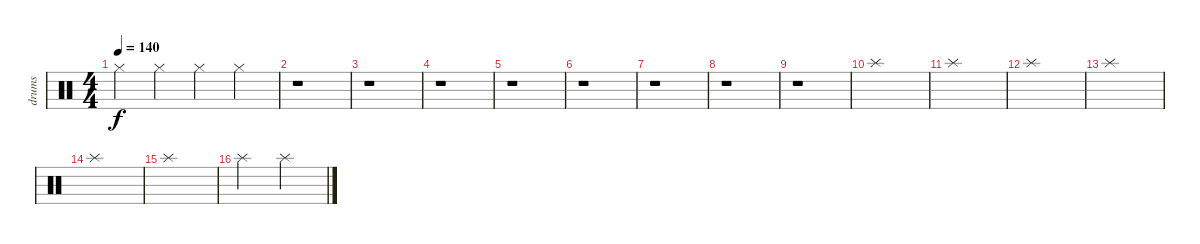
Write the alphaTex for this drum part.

\track ("drums" "drums") {instrument percussion}
\staff {score}
\articulation defaults
\ts (4 4)
\tempo 140
\clef neutral
\ks c "Hi-Hat (closed)".4{dy f} "Hi-Hat (closed)".4 "Hi-Hat (closed)".4 "Hi-Hat (closed)".4
|
r.1 |
r.1 |
r.1 |
r.1 |
r.1 |
r.1 |
r.1 |
r.1 |
"Splash (hit)".1 |
"Splash (hit)".1 |
"Splash (hit)".1 |
"Splash (hit)".1 |
"Splash (hit)".1 |
"Splash (hit)".1 |
"Splash (hit)".2 "Splash (hit)".2
